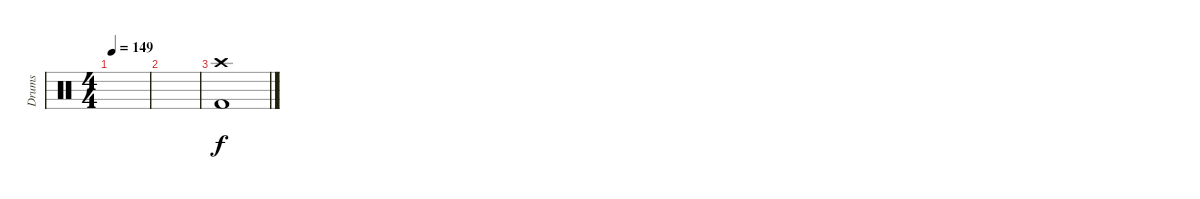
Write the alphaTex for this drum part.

\track ("Drums" "Drums") {instrument percussion}
\staff {score}
\articulation defaults
\ts (4 4)
\tempo 149
\clef neutral
\ks c
|
|
("Crash high (hit)" "Kick (hit) 2").1
